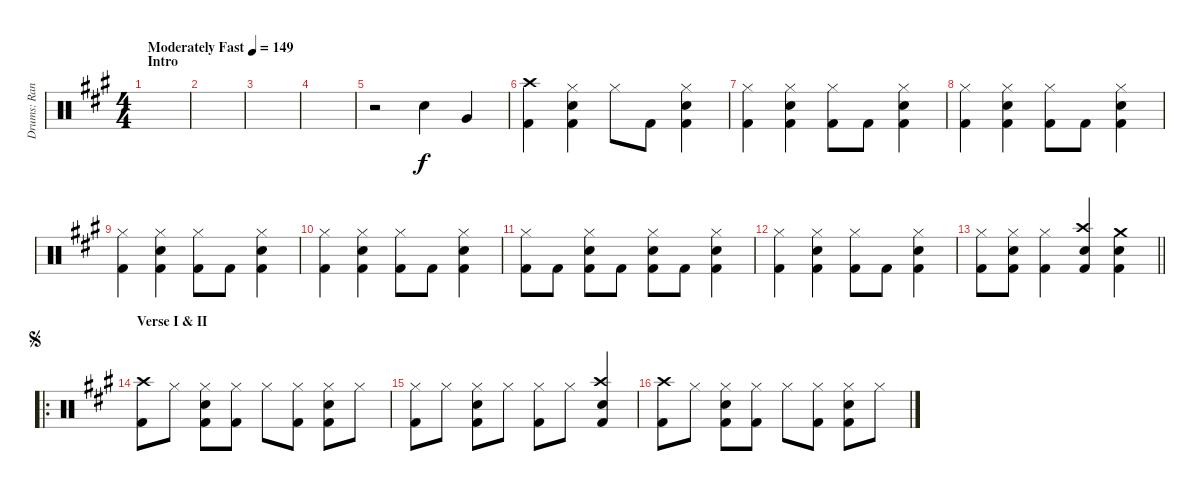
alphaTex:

\track ("Drums: Randy" "Drums: Ran") {instrument percussion}
\staff {score}
\articulation defaults
\ts (4 4)
\section ("" "Intro")
\tempo (149 "Moderately Fast")
\clef neutral
\ks a
|
|
|
|
r.2 "Snare (hit) 2".4 "Very Low Tom (hit)".4 |
("Crash high (hit)" "Kick (hit) 2").4 ("Hi-Hat (closed)" "Snare (hit) 2" "Kick (hit) 2").4 "Hi-Hat (closed)".8 "Kick (hit) 2".8 ("Hi-Hat (closed)" "Snare (hit) 2" "Kick (hit) 2").4 |
("Hi-Hat (closed)" "Kick (hit) 2").4 ("Hi-Hat (closed)" "Snare (hit) 2" "Kick (hit) 2").4 ("Hi-Hat (closed)" "Kick (hit) 2").8 "Kick (hit) 2".8 ("Hi-Hat (closed)" "Snare (hit) 2" "Kick (hit) 2").4 |
("Hi-Hat (closed)" "Kick (hit) 2").4 ("Hi-Hat (closed)" "Snare (hit) 2" "Kick (hit) 2").4 ("Hi-Hat (closed)" "Kick (hit) 2").8 "Kick (hit) 2".8 ("Hi-Hat (closed)" "Snare (hit) 2" "Kick (hit) 2").4 |
("Hi-Hat (closed)" "Kick (hit) 2").4 ("Hi-Hat (closed)" "Snare (hit) 2" "Kick (hit) 2").4 ("Hi-Hat (closed)" "Kick (hit) 2").8 "Kick (hit) 2".8 ("Hi-Hat (closed)" "Snare (hit) 2" "Kick (hit) 2").4 |
("Hi-Hat (closed)" "Kick (hit) 2").4 ("Hi-Hat (closed)" "Snare (hit) 2" "Kick (hit) 2").4 ("Hi-Hat (closed)" "Kick (hit) 2").8 "Kick (hit) 2".8 ("Hi-Hat (closed)" "Snare (hit) 2" "Kick (hit) 2").4 |
("Hi-Hat (closed)" "Kick (hit) 2").8 "Kick (hit) 2".8 ("Hi-Hat (closed)" "Snare (hit) 2" "Kick (hit) 2").8 "Kick (hit) 2".8 ("Hi-Hat (closed)" "Snare (hit) 2" "Kick (hit) 2").8 "Kick (hit) 2".8 ("Hi-Hat (closed)" "Snare (hit) 2" "Kick (hit) 2").4 |
("Hi-Hat (closed)" "Kick (hit) 2").4 ("Hi-Hat (closed)" "Snare (hit) 2" "Kick (hit) 2").4 ("Hi-Hat (closed)" "Kick (hit) 2").8 "Kick (hit) 2".8 ("Hi-Hat (closed)" "Snare (hit) 2" "Kick (hit) 2").4 |
\barLineRight lightlight
("Hi-Hat (closed)" "Kick (hit) 2").8 ("Hi-Hat (closed)" "Snare (hit) 2" "Kick (hit) 2").8 ("Hi-Hat (closed)" "Kick (hit) 2").4 ("Crash high (hit)" "Snare (hit) 2" "Kick (hit) 2").4 ("Crash medium (hit)" "Snare (hit) 2" "Kick (hit) 2").4 |
\ro
\section ("" "Verse I & II")
\jump segno
("Crash high (hit)" "Kick (hit) 2").8 "Hi-Hat (closed)".8 ("Hi-Hat (closed)" "Snare (hit) 2" "Kick (hit) 2").8 ("Hi-Hat (closed)" "Kick (hit) 2").8 "Hi-Hat (closed)".8 ("Hi-Hat (closed)" "Kick (hit) 2").8 ("Hi-Hat (closed)" "Snare (hit) 2" "Kick (hit) 2").8 "Hi-Hat (closed)".8 |
("Hi-Hat (closed)" "Kick (hit) 2").8 "Hi-Hat (closed)".8 ("Hi-Hat (closed)" "Snare (hit) 2" "Kick (hit) 2").8 "Hi-Hat (closed)".8 ("Hi-Hat (closed)" "Kick (hit) 2").8 "Hi-Hat (closed)".8 ("Crash high (hit)" "Snare (hit) 2" "Kick (hit) 2").4 |
("Crash high (hit)" "Kick (hit) 2").8 "Hi-Hat (closed)".8 ("Hi-Hat (closed)" "Snare (hit) 2" "Kick (hit) 2").8 ("Hi-Hat (closed)" "Kick (hit) 2").8 "Hi-Hat (closed)".8 ("Hi-Hat (closed)" "Kick (hit) 2").8 ("Hi-Hat (closed)" "Snare (hit) 2" "Kick (hit) 2").8 "Hi-Hat (closed)".8
